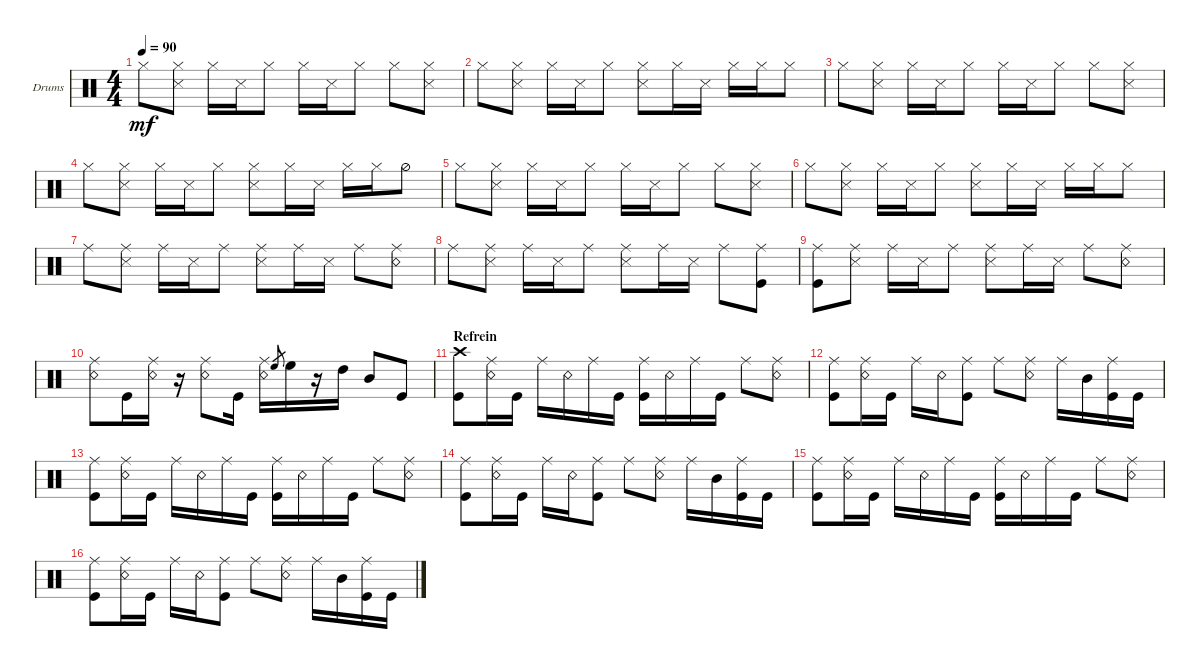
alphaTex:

\defaultSystemsLayout 4
\bracketExtendMode groupsimilarinstruments
\firstSystemTrackNameOrientation horizontal
\otherSystemsTrackNameOrientation horizontal
\track ("Drumkit" "Drums") {instrument percussion}
\staff {score}
\articulation defaults
\ts (4 4)
\tempo 90
\clef neutral
\ks c "Hi-Hat (closed)".8{dy mf}
("Hi-Hat (closed)" "Snare (side stick) 3").8 "Hi-Hat (closed)".16 "Snare (side stick) 3".16 "Hi-Hat (closed)".8 "Hi-Hat (closed)".16 "Snare (side stick) 3".16 "Hi-Hat (closed)".8 "Hi-Hat (closed)".8 ("Hi-Hat (closed)" "Snare (side stick) 3").8 |
"Hi-Hat (closed)".8 ("Hi-Hat (closed)" "Snare (side stick) 3").8 "Hi-Hat (closed)".16 "Snare (side stick) 3".16 "Hi-Hat (closed)".8 ("Hi-Hat (closed)" "Snare (side stick) 3").8 "Hi-Hat (closed)".16 "Snare (side stick) 3".16 "Hi-Hat (closed)".16 "Hi-Hat (closed)".16 "Hi-Hat (closed)".8 |
"Hi-Hat (closed)".8 ("Hi-Hat (closed)" "Snare (side stick) 3").8 "Hi-Hat (closed)".16 "Snare (side stick) 3".16 "Hi-Hat (closed)".8 "Hi-Hat (closed)".16 "Snare (side stick) 3".16 "Hi-Hat (closed)".8 "Hi-Hat (closed)".8 ("Hi-Hat (closed)" "Snare (side stick) 3").8 |
"Hi-Hat (closed)".8 ("Hi-Hat (closed)" "Snare (side stick) 3").8 "Hi-Hat (closed)".16 "Snare (side stick) 3".16 "Hi-Hat (closed)".8 ("Hi-Hat (closed)" "Snare (side stick) 3").8 "Hi-Hat (closed)".16 "Snare (side stick) 3".16 "Hi-Hat (closed)".16 "Hi-Hat (closed)".16 "Hi-Hat (half)".8 |
"Hi-Hat (closed)".8 ("Hi-Hat (closed)" "Snare (side stick) 3").8 "Hi-Hat (closed)".16 "Snare (side stick) 3".16 "Hi-Hat (closed)".8 "Hi-Hat (closed)".16 "Snare (side stick) 3".16 "Hi-Hat (closed)".8 "Hi-Hat (closed)".8 ("Hi-Hat (closed)" "Snare (side stick) 3").8 |
"Hi-Hat (closed)".8 ("Hi-Hat (closed)" "Snare (side stick) 3").8 "Hi-Hat (closed)".16 "Snare (side stick) 3".16 "Hi-Hat (closed)".8 ("Hi-Hat (closed)" "Snare (side stick) 3").8 "Hi-Hat (closed)".16 "Snare (side stick) 3".16 "Hi-Hat (closed)".16 "Hi-Hat (closed)".16 "Hi-Hat (closed)".8 |
"Ride (middle)".8 ("Ride (middle)" "Snare (side stick) 3").8 "Ride (middle)".16 "Snare (side stick) 3".16 "Ride (middle)".8 ("Snare (side stick) 3" "Ride (middle)").8 "Ride (middle)".16 "Snare (side stick) 3".16 "Ride (middle)".8 ("Ride (middle)" "Snare (rim shot)").8 |
"Ride (middle)".8 ("Ride (middle)" "Snare (side stick) 3").8 "Ride (middle)".16 "Snare (side stick) 3".16 "Ride (middle)".8 ("Snare (side stick) 3" "Ride (middle)").8 "Ride (middle)".16 "Snare (side stick) 3".16 "Ride (middle)".8 ("Ride (middle)" "Kick (hit)").8 |
("Ride (middle)" "Kick (hit)").8 ("Ride (middle)" "Snare (side stick) 3").8 "Ride (middle)".16 "Snare (side stick) 3".16 "Ride (middle)".8 ("Snare (side stick) 3" "Ride (middle)").8 "Ride (middle)".16 "Snare (side stick) 3".16 "Ride (middle)".8 ("Ride (middle)" "Snare (rim shot)").8 |
("Ride (middle)" "Snare (rim shot)").8 "Kick (hit)".16 ("Snare (rim shot)" "Ride (middle)").16 r.16 ("Ride (middle)" "Snare (rim shot)").8 "Kick (hit)".16 ("Snare (rim shot)" "Ride (middle)").16 "High Floor Tom (hit)".8{gr} "High Floor Tom (hit)".16 r.16 "High Tom (hit)".16 "Mid Tom (hit)".8 "Kick (hit)".8 |
\section ("" "Refrein")
("Kick (hit)" "Crash high (hit)").8 ("Ride (middle)" "Snare (rim shot)").16 "Kick (hit)".16 "Ride (middle)".16 "Snare (rim shot)".16 "Ride (middle)".16 "Kick (hit)".16 ("Kick (hit)" "Ride (middle)").16 "Snare (rim shot)".16 "Ride (middle)".16 "Kick (hit)".16 "Ride (middle)".8 ("Snare (rim shot)" "Ride (middle)").8 |
("Ride (middle)" "Kick (hit)").8 ("Ride (middle)" "Snare (rim shot)").16 "Kick (hit)".16 "Ride (middle)".16 "Snare (rim shot)".16 ("Ride (middle)" "Kick (hit)").8 "Ride (middle)".8 ("Ride (middle)" "Snare (rim shot)").8 "Ride (middle)".16 "Mid Tom (hit)".16 ("Kick (hit)" "Ride (middle)").16 "Kick (hit)".16 |
("Kick (hit)" "Ride (middle)").8 ("Ride (middle)" "Snare (rim shot)").16 "Kick (hit)".16 "Ride (middle)".16 "Snare (rim shot)".16 "Ride (middle)".16 "Kick (hit)".16 ("Kick (hit)" "Ride (middle)").16 "Snare (rim shot)".16 "Ride (middle)".16 "Kick (hit)".16 "Ride (middle)".8 ("Snare (rim shot)" "Ride (middle)").8 |
("Ride (middle)" "Kick (hit)").8 ("Ride (middle)" "Snare (rim shot)").16 "Kick (hit)".16 "Ride (middle)".16 "Snare (rim shot)".16 ("Ride (middle)" "Kick (hit)").8 "Ride (middle)".8 ("Ride (middle)" "Snare (rim shot)").8 "Ride (middle)".16 "Mid Tom (hit)".16 ("Kick (hit)" "Ride (middle)").16 "Kick (hit)".16 |
("Kick (hit)" "Ride (middle)").8 ("Ride (middle)" "Snare (rim shot)").16 "Kick (hit)".16 "Ride (middle)".16 "Snare (rim shot)".16 "Ride (middle)".16 "Kick (hit)".16 ("Kick (hit)" "Ride (middle)").16 "Snare (rim shot)".16 "Ride (middle)".16 "Kick (hit)".16 "Ride (middle)".8 ("Snare (rim shot)" "Ride (middle)").8 |
("Ride (middle)" "Kick (hit)").8 ("Ride (middle)" "Snare (rim shot)").16 "Kick (hit)".16 "Ride (middle)".16 "Snare (rim shot)".16 ("Ride (middle)" "Kick (hit)").8 "Ride (middle)".8 ("Ride (middle)" "Snare (rim shot)").8 "Ride (middle)".16 "Mid Tom (hit)".16 ("Kick (hit)" "Ride (middle)").16 "Kick (hit)".16
